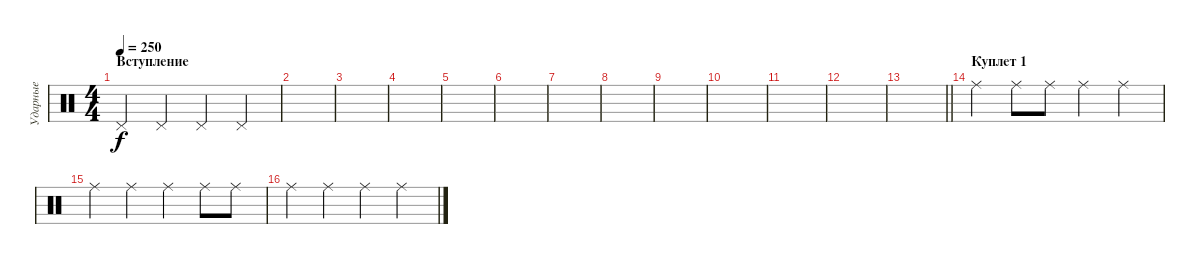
\track ("Ударные" "Ударные") {instrument percussion}
\staff {score}
\articulation defaults
\ts (4 4)
\section ("" "Вступление")
\tempo 250
\clef neutral
\ks c "Pedal Hi-Hat (hit)".4{dy f} "Pedal Hi-Hat (hit)".4 "Pedal Hi-Hat (hit)".4 "Pedal Hi-Hat (hit)".4
|
|
|
|
|
|
|
|
|
|
|
|
\barLineRight lightlight
|
\section ("" "Куплет 1")
"Ride (middle)".4 "Ride (middle)".8 "Ride (middle)".8 "Ride (middle)".4 "Ride (middle)".4 |
"Ride (middle)".4 "Ride (middle)".4 "Ride (middle)".4 "Ride (middle)".8 "Ride (middle)".8 |
"Ride (middle)".4 "Ride (middle)".4 "Ride (middle)".4 "Ride (middle)".4
